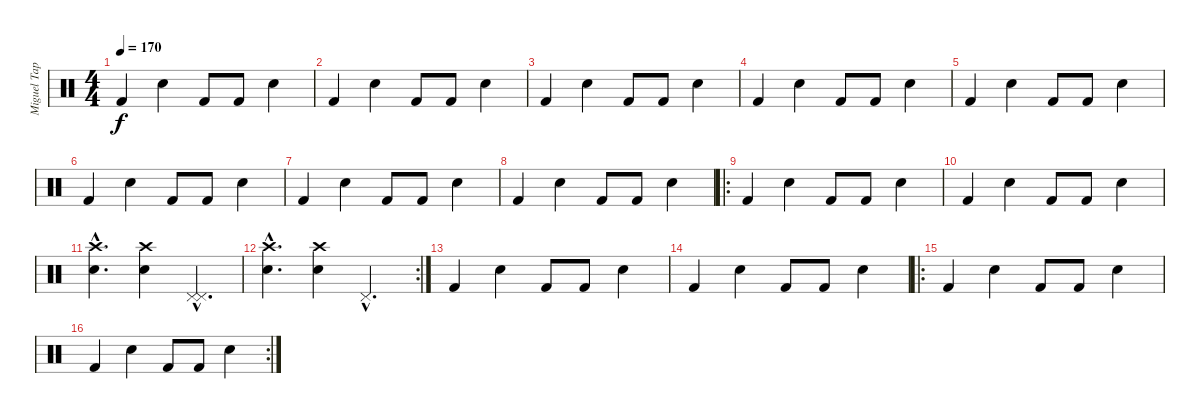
\track ("Miguel Tapia" "Miguel Tap") {instrument percussion}
\staff {score}
\articulation defaults
\ts (4 4)
\tempo 170
\clef neutral
\ks c "Kick (hit) 2".4{dy f} "Snare (hit) 2".4 "Kick (hit) 2".8 "Kick (hit) 2".8 "Snare (hit) 2".4
|
"Kick (hit) 2".4 "Snare (hit) 2".4 "Kick (hit) 2".8 "Kick (hit) 2".8 "Snare (hit) 2".4 |
"Kick (hit) 2".4 "Snare (hit) 2".4 "Kick (hit) 2".8 "Kick (hit) 2".8 "Snare (hit) 2".4 |
"Kick (hit) 2".4 "Snare (hit) 2".4 "Kick (hit) 2".8 "Kick (hit) 2".8 "Snare (hit) 2".4 |
"Kick (hit) 2".4 "Snare (hit) 2".4 "Kick (hit) 2".8 "Kick (hit) 2".8 "Snare (hit) 2".4 |
"Kick (hit) 2".4 "Snare (hit) 2".4 "Kick (hit) 2".8 "Kick (hit) 2".8 "Snare (hit) 2".4 |
"Kick (hit) 2".4 "Snare (hit) 2".4 "Kick (hit) 2".8 "Kick (hit) 2".8 "Snare (hit) 2".4 |
"Kick (hit) 2".4 "Snare (hit) 2".4 "Kick (hit) 2".8 "Kick (hit) 2".8 "Snare (hit) 2".4 |
\ro "Kick (hit) 2".4 "Snare (hit) 2".4 "Kick (hit) 2".8 "Kick (hit) 2".8 "Snare (hit) 2".4
|
"Kick (hit) 2".4 "Snare (hit) 2".4 "Kick (hit) 2".8 "Kick (hit) 2".8 "Snare (hit) 2".4 |
("Snare (hit) 2"{hac} "Crash high (hit)"{hac}).4{d} ("Snare (hit) 2" "Crash high (hit)").4 ("Pedal Hi-Hat (hit)"{hac} "Pedal Hi-Hat (hit)"{hac}).4{d} |
\rc 2
("Snare (hit) 2"{hac} "Crash high (hit)"{hac}).4{d} ("Snare (hit) 2" "Crash high (hit)").4 "Pedal Hi-Hat (hit)"{hac}.4{d} |
"Kick (hit) 2".4 "Snare (hit) 2".4 "Kick (hit) 2".8 "Kick (hit) 2".8 "Snare (hit) 2".4 |
"Kick (hit) 2".4 "Snare (hit) 2".4 "Kick (hit) 2".8 "Kick (hit) 2".8 "Snare (hit) 2".4 |
\ro "Kick (hit) 2".4 "Snare (hit) 2".4 "Kick (hit) 2".8 "Kick (hit) 2".8 "Snare (hit) 2".4
|
\rc 2 "Kick (hit) 2".4 "Snare (hit) 2".4 "Kick (hit) 2".8 "Kick (hit) 2".8 "Snare (hit) 2".4
